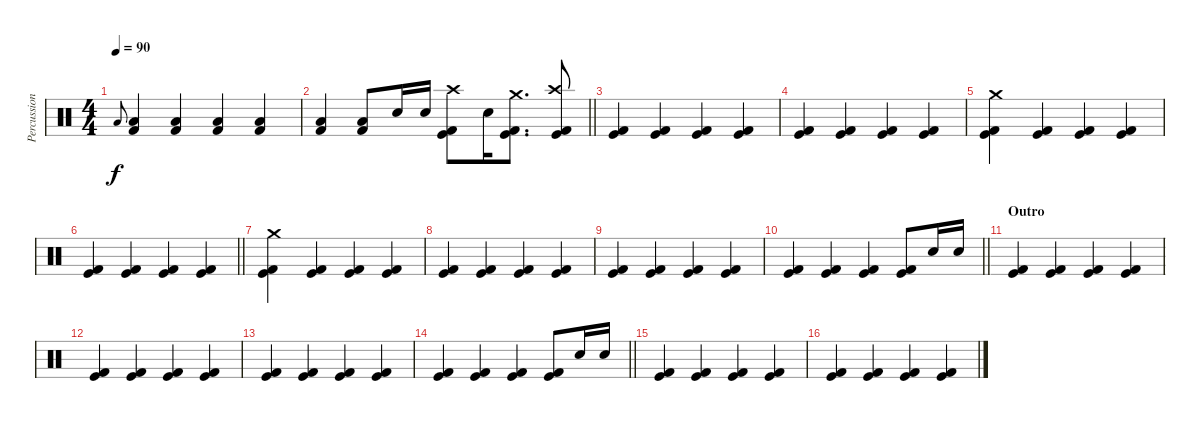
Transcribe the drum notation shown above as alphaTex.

\track ("Percussion" "Percussion") {instrument percussion}
\staff {score}
\articulation defaults
\ts (4 4)
\tempo 90
\clef neutral
\ks c "Low Tom (hit)".8{gr onbeat dy f}
("Low Floor Tom (hit)" "Kick (hit) 2").4 ("Low Floor Tom (hit)" "Kick (hit) 2").4 ("Low Floor Tom (hit)" "Kick (hit) 2").4 ("Low Floor Tom (hit)" "Kick (hit) 2").4 |
\barLineRight lightlight
("Low Floor Tom (hit)" "Kick (hit) 2").4 ("Low Floor Tom (hit)" "Kick (hit) 2").8 "Electric Snare (hit)".16 "Electric Snare (hit)".16 ("Crash high (hit)" "Kick (hit)" "Kick (hit) 2").8 "Electric Snare (hit)".16 ("Crash medium (hit)" "Kick (hit)" "Kick (hit) 2").8{d} ("Crash high (hit)" "Kick (hit)" "Kick (hit) 2").8 |
\section ("" "")
("Kick (hit)" "Kick (hit) 2").4 ("Kick (hit)" "Kick (hit) 2").4 ("Kick (hit)" "Kick (hit) 2").4 ("Kick (hit)" "Kick (hit) 2").4 |
("Kick (hit)" "Kick (hit) 2").4 ("Kick (hit)" "Kick (hit) 2").4 ("Kick (hit)" "Kick (hit) 2").4 ("Kick (hit)" "Kick (hit) 2").4 |
("Crash medium (hit)" "Kick (hit)" "Kick (hit) 2").4 ("Kick (hit)" "Kick (hit) 2").4 ("Kick (hit)" "Kick (hit) 2").4 ("Kick (hit)" "Kick (hit) 2").4 |
\barLineRight lightlight
("Kick (hit)" "Kick (hit) 2").4 ("Kick (hit)" "Kick (hit) 2").4 ("Kick (hit)" "Kick (hit) 2").4 ("Kick (hit)" "Kick (hit) 2").4 |
\section ("" "")
("Crash medium (hit)" "Kick (hit)" "Kick (hit) 2").4 ("Kick (hit)" "Kick (hit) 2").4 ("Kick (hit)" "Kick (hit) 2").4 ("Kick (hit)" "Kick (hit) 2").4 |
("Kick (hit)" "Kick (hit) 2").4 ("Kick (hit)" "Kick (hit) 2").4 ("Kick (hit)" "Kick (hit) 2").4 ("Kick (hit)" "Kick (hit) 2").4 |
("Kick (hit)" "Kick (hit) 2").4 ("Kick (hit)" "Kick (hit) 2").4 ("Kick (hit)" "Kick (hit) 2").4 ("Kick (hit)" "Kick (hit) 2").4 |
\barLineRight lightlight
("Kick (hit)" "Kick (hit) 2").4 ("Kick (hit)" "Kick (hit) 2").4 ("Kick (hit)" "Kick (hit) 2").4 ("Kick (hit)" "Kick (hit) 2").8 "Electric Snare (hit)".16 "Electric Snare (hit)".16 |
\section ("" "Outro")
("Kick (hit)" "Kick (hit) 2").4 ("Kick (hit)" "Kick (hit) 2").4 ("Kick (hit)" "Kick (hit) 2").4 ("Kick (hit)" "Kick (hit) 2").4 |
("Kick (hit)" "Kick (hit) 2").4 ("Kick (hit)" "Kick (hit) 2").4 ("Kick (hit)" "Kick (hit) 2").4 ("Kick (hit)" "Kick (hit) 2").4 |
("Kick (hit)" "Kick (hit) 2").4 ("Kick (hit)" "Kick (hit) 2").4 ("Kick (hit)" "Kick (hit) 2").4 ("Kick (hit)" "Kick (hit) 2").4 |
\barLineRight lightlight
("Kick (hit)" "Kick (hit) 2").4 ("Kick (hit)" "Kick (hit) 2").4 ("Kick (hit)" "Kick (hit) 2").4 ("Kick (hit)" "Kick (hit) 2").8 "Electric Snare (hit)".16 "Electric Snare (hit)".16 |
("Kick (hit)" "Kick (hit) 2").4 ("Kick (hit)" "Kick (hit) 2").4 ("Kick (hit)" "Kick (hit) 2").4 ("Kick (hit)" "Kick (hit) 2").4 |
("Kick (hit)" "Kick (hit) 2").4 ("Kick (hit)" "Kick (hit) 2").4 ("Kick (hit)" "Kick (hit) 2").4 ("Kick (hit)" "Kick (hit) 2").4
